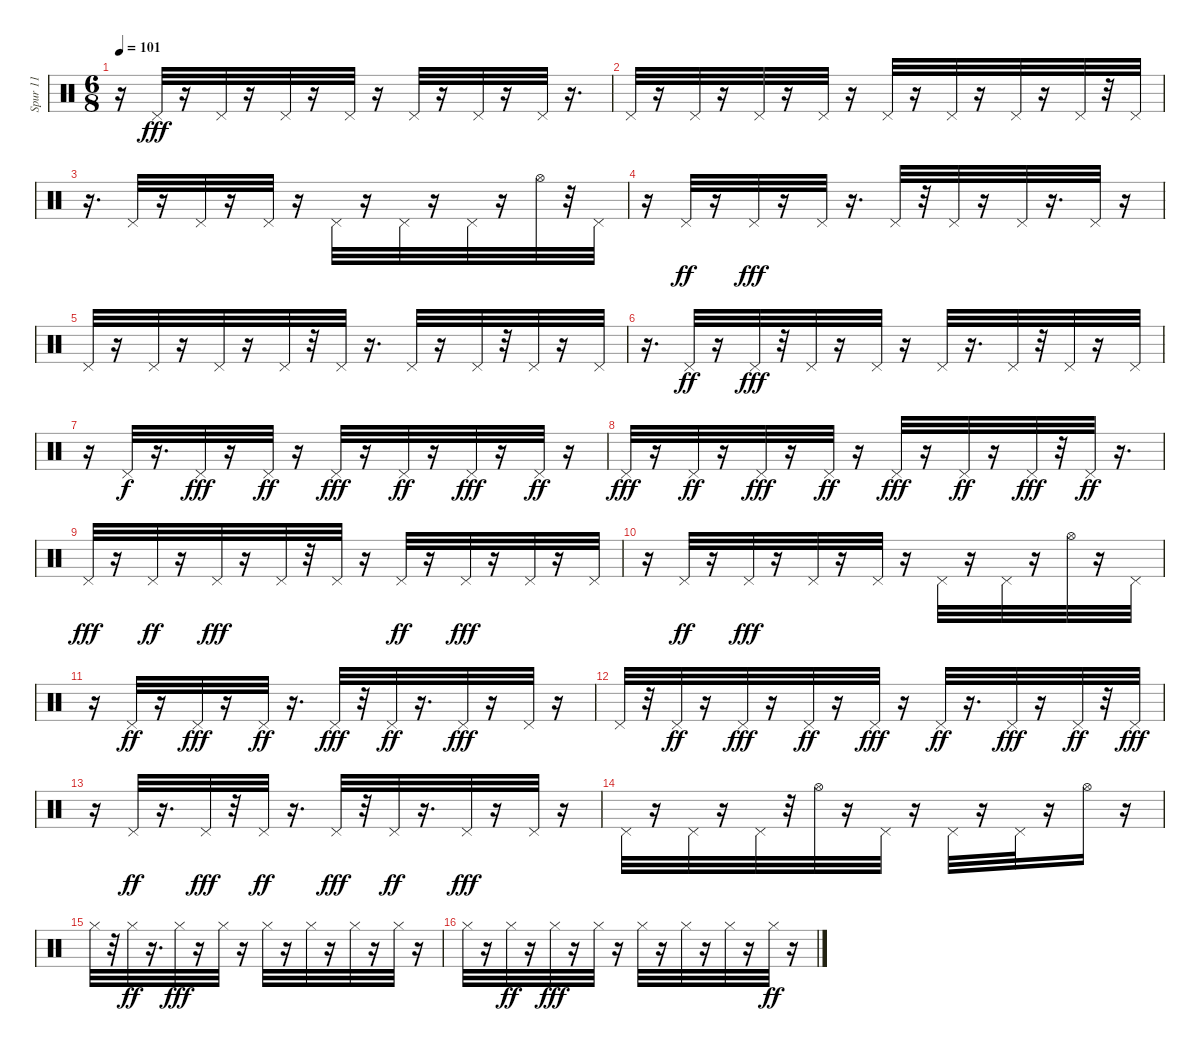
\track ("Spur 11" "Spur 11") {instrument percussion}
\staff {score}
\articulation defaults
\ts (6 8)
\tempo 101
\clef neutral
\ks c
r.16{dy fff} "Pedal Hi-Hat (hit)".32 r.16 "Pedal Hi-Hat (hit)".32 r.16 "Pedal Hi-Hat (hit)".32 r.16 "Pedal Hi-Hat (hit)".32 r.16 "Pedal Hi-Hat (hit)".32 r.16 "Pedal Hi-Hat (hit)".32 r.16 "Pedal Hi-Hat (hit)".32 r.16{d} |
"Pedal Hi-Hat (hit)".32 r.16 "Pedal Hi-Hat (hit)".32 r.16 "Pedal Hi-Hat (hit)".32 r.16 "Pedal Hi-Hat (hit)".32 r.16 "Pedal Hi-Hat (hit)".32 r.16 "Pedal Hi-Hat (hit)".32 r.16 "Pedal Hi-Hat (hit)".32 r.16 "Pedal Hi-Hat (hit)".32 r.32 "Pedal Hi-Hat (hit)".32 |
r.16{d} "Pedal Hi-Hat (hit)".32 r.16 "Pedal Hi-Hat (hit)".32 r.16 "Pedal Hi-Hat (hit)".32 r.16 "Pedal Hi-Hat (hit)".32 r.16 "Pedal Hi-Hat (hit)".32 r.16 "Pedal Hi-Hat (hit)".32 r.16 "Hi-Hat (open)".32 r.32 "Pedal Hi-Hat (hit)".32 |
r.16 "Pedal Hi-Hat (hit)".32{dy ff} r.16 "Pedal Hi-Hat (hit)".32{dy fff} r.16 "Pedal Hi-Hat (hit)".32 r.16{d} "Pedal Hi-Hat (hit)".32 r.32 "Pedal Hi-Hat (hit)".32 r.16 "Pedal Hi-Hat (hit)".32 r.16{d} "Pedal Hi-Hat (hit)".32 r.16 |
"Pedal Hi-Hat (hit)".32 r.16 "Pedal Hi-Hat (hit)".32 r.16 "Pedal Hi-Hat (hit)".32 r.16 "Pedal Hi-Hat (hit)".32 r.32 "Pedal Hi-Hat (hit)".32 r.16{d} "Pedal Hi-Hat (hit)".32 r.16 "Pedal Hi-Hat (hit)".32 r.32 "Pedal Hi-Hat (hit)".32 r.16 "Pedal Hi-Hat (hit)".32 |
r.16{d} "Pedal Hi-Hat (hit)".32{dy ff} r.16 "Pedal Hi-Hat (hit)".32{dy fff} r.32 "Pedal Hi-Hat (hit)".32 r.16 "Pedal Hi-Hat (hit)".32 r.16 "Pedal Hi-Hat (hit)".32 r.16{d} "Pedal Hi-Hat (hit)".32 r.32 "Pedal Hi-Hat (hit)".32 r.16 "Pedal Hi-Hat (hit)".32 |
r.16 "Pedal Hi-Hat (hit)".32{dy f} r.16{d} "Pedal Hi-Hat (hit)".32{dy fff} r.16 "Pedal Hi-Hat (hit)".32{dy ff} r.16 "Pedal Hi-Hat (hit)".32{dy fff} r.16 "Pedal Hi-Hat (hit)".32{dy ff} r.16 "Pedal Hi-Hat (hit)".32{dy fff} r.16 "Pedal Hi-Hat (hit)".32{dy ff} r.16 |
"Pedal Hi-Hat (hit)".32{dy fff} r.16 "Pedal Hi-Hat (hit)".32{dy ff} r.16 "Pedal Hi-Hat (hit)".32{dy fff} r.16 "Pedal Hi-Hat (hit)".32{dy ff} r.16 "Pedal Hi-Hat (hit)".32{dy fff} r.16 "Pedal Hi-Hat (hit)".32{dy ff} r.16 "Pedal Hi-Hat (hit)".32{dy fff} r.32 "Pedal Hi-Hat (hit)".32{dy ff} r.16{d} |
"Pedal Hi-Hat (hit)".32{dy fff} r.16 "Pedal Hi-Hat (hit)".32{dy ff} r.16 "Pedal Hi-Hat (hit)".32{dy fff} r.16 "Pedal Hi-Hat (hit)".32 r.32 "Pedal Hi-Hat (hit)".32 r.16 "Pedal Hi-Hat (hit)".32{dy ff} r.16 "Pedal Hi-Hat (hit)".32{dy fff} r.16 "Pedal Hi-Hat (hit)".32 r.16 "Pedal Hi-Hat (hit)".32 |
r.16 "Pedal Hi-Hat (hit)".32{dy ff} r.16 "Pedal Hi-Hat (hit)".32{dy fff} r.16 "Pedal Hi-Hat (hit)".32 r.16 "Pedal Hi-Hat (hit)".32 r.16 "Pedal Hi-Hat (hit)".32 r.16 "Pedal Hi-Hat (hit)".32 r.16 "Hi-Hat (open)".32 r.16 "Pedal Hi-Hat (hit)".32 |
r.16 "Pedal Hi-Hat (hit)".32{dy ff} r.16 "Pedal Hi-Hat (hit)".32{dy fff} r.16 "Pedal Hi-Hat (hit)".32{dy ff} r.16{d} "Pedal Hi-Hat (hit)".32{dy fff} r.32 "Pedal Hi-Hat (hit)".32{dy ff} r.16{d} "Pedal Hi-Hat (hit)".32{dy fff} r.16 "Pedal Hi-Hat (hit)".32 r.16 |
"Pedal Hi-Hat (hit)".32 r.32 "Pedal Hi-Hat (hit)".32{dy ff} r.16 "Pedal Hi-Hat (hit)".32{dy fff} r.16 "Pedal Hi-Hat (hit)".32{dy ff} r.16 "Pedal Hi-Hat (hit)".32{dy fff} r.16 "Pedal Hi-Hat (hit)".32{dy ff} r.16{d} "Pedal Hi-Hat (hit)".32{dy fff} r.16 "Pedal Hi-Hat (hit)".32{dy ff} r.32 "Pedal Hi-Hat (hit)".32{dy fff} |
r.16 "Pedal Hi-Hat (hit)".32{dy ff} r.16{d} "Pedal Hi-Hat (hit)".32{dy fff} r.32 "Pedal Hi-Hat (hit)".32{dy ff} r.16{d} "Pedal Hi-Hat (hit)".32{dy fff} r.32 "Pedal Hi-Hat (hit)".32{dy ff} r.16{d} "Pedal Hi-Hat (hit)".32{dy fff} r.16 "Pedal Hi-Hat (hit)".32 r.16 |
"Pedal Hi-Hat (hit)".32 r.16 "Pedal Hi-Hat (hit)".32 r.16 "Pedal Hi-Hat (hit)".32 r.32 "Hi-Hat (open)".32 r.16 "Pedal Hi-Hat (hit)".32 r.16 "Pedal Hi-Hat (hit)".32 r.16 "Pedal Hi-Hat (hit)".32 r.16 "Hi-Hat (open)".16 r.16 |
"Hi-Hat (closed)".32 r.32 "Hi-Hat (closed)".32{dy ff} r.16{d} "Hi-Hat (closed)".32{dy fff} r.16 "Hi-Hat (closed)".32 r.16 "Hi-Hat (closed)".32 r.16 "Hi-Hat (closed)".32 r.16 "Hi-Hat (closed)".32 r.16 "Hi-Hat (closed)".32 r.16 |
"Hi-Hat (closed)".32 r.16 "Hi-Hat (closed)".32{dy ff} r.16 "Hi-Hat (closed)".32{dy fff} r.16 "Hi-Hat (closed)".32 r.16 "Hi-Hat (closed)".32 r.16 "Hi-Hat (closed)".32 r.16 "Hi-Hat (closed)".32 r.16 "Hi-Hat (closed)".32{dy ff} r.16
